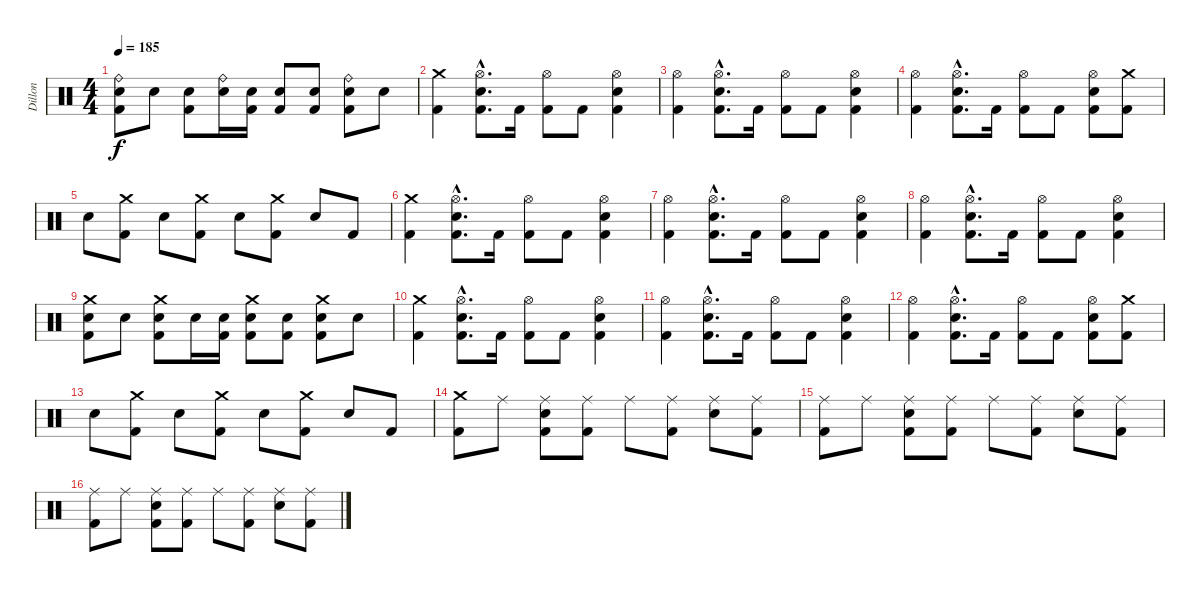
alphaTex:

\track ("Dillon" "Dillon") {instrument percussion}
\staff {score}
\articulation defaults
\ts (4 4)
\tempo 185
\clef neutral
\ks c
("Ride (bell)" "Electric Snare (hit)" "Kick (hit) 2").8{dy f} "Electric Snare (hit)".8 ("Electric Snare (hit)" "Kick (hit) 2").8 ("Ride (bell)" "Electric Snare (hit)").16 ("Electric Snare (hit)" "Kick (hit) 2").16 ("Electric Snare (hit)" "Kick (hit) 2").8 ("Electric Snare (hit)" "Kick (hit) 2").8 ("Ride (bell)" "Electric Snare (hit)" "Kick (hit) 2").8 "Electric Snare (hit)".8 |
("Crash medium (hit)" "Kick (hit) 2").4 ("Hi-Hat (open)"{hac} "Electric Snare (hit)"{hac} "Kick (hit) 2"{hac}).8{d} "Kick (hit) 2".16 ("Hi-Hat (open)" "Kick (hit) 2").8 "Kick (hit) 2".8 ("Hi-Hat (open)" "Electric Snare (hit)" "Kick (hit) 2").4 |
("Hi-Hat (open)" "Kick (hit) 2").4 ("Hi-Hat (open)"{hac} "Electric Snare (hit)"{hac} "Kick (hit) 2"{hac}).8{d} "Kick (hit) 2".16 ("Hi-Hat (open)" "Kick (hit) 2").8 "Kick (hit) 2".8 ("Hi-Hat (open)" "Electric Snare (hit)" "Kick (hit) 2").4 |
("Hi-Hat (open)" "Kick (hit) 2").4 ("Hi-Hat (open)"{hac} "Electric Snare (hit)"{hac} "Kick (hit) 2"{hac}).8{d} "Kick (hit) 2".16 ("Hi-Hat (open)" "Kick (hit) 2").8 "Kick (hit) 2".8 ("Hi-Hat (open)" "Electric Snare (hit)" "Kick (hit) 2").8 ("Crash medium (hit)" "Kick (hit) 2").8 |
"Electric Snare (hit)".8 ("Crash medium (hit)" "Kick (hit) 2").8 "Electric Snare (hit)".8 ("Crash medium (hit)" "Kick (hit) 2").8 "Electric Snare (hit)".8 ("Crash medium (hit)" "Kick (hit) 2").8 "Electric Snare (hit)".8 "Kick (hit) 2".8 |
("Crash medium (hit)" "Kick (hit) 2").4 ("Hi-Hat (open)"{hac} "Electric Snare (hit)"{hac} "Kick (hit) 2"{hac}).8{d} "Kick (hit) 2".16 ("Hi-Hat (open)" "Kick (hit) 2").8 "Kick (hit) 2".8 ("Hi-Hat (open)" "Electric Snare (hit)" "Kick (hit) 2").4 |
("Hi-Hat (open)" "Kick (hit) 2").4 ("Hi-Hat (open)"{hac} "Electric Snare (hit)"{hac} "Kick (hit) 2"{hac}).8{d} "Kick (hit) 2".16 ("Hi-Hat (open)" "Kick (hit) 2").8 "Kick (hit) 2".8 ("Hi-Hat (open)" "Electric Snare (hit)" "Kick (hit) 2").4 |
("Hi-Hat (open)" "Kick (hit) 2").4 ("Hi-Hat (open)"{hac} "Electric Snare (hit)"{hac} "Kick (hit) 2"{hac}).8{d} "Kick (hit) 2".16 ("Hi-Hat (open)" "Kick (hit) 2").8 "Kick (hit) 2".8 ("Hi-Hat (open)" "Electric Snare (hit)" "Kick (hit) 2").4 |
("Crash medium (hit)" "Electric Snare (hit)" "Kick (hit) 2").8 "Electric Snare (hit)".8 ("Crash medium (hit)" "Electric Snare (hit)" "Kick (hit) 2").8 "Electric Snare (hit)".16 ("Electric Snare (hit)" "Kick (hit) 2").16 ("Crash medium (hit)" "Electric Snare (hit)" "Kick (hit) 2").8 ("Electric Snare (hit)" "Kick (hit) 2").8 ("Crash medium (hit)" "Electric Snare (hit)" "Kick (hit) 2").8 "Electric Snare (hit)".8 |
("Crash medium (hit)" "Kick (hit) 2").4 ("Hi-Hat (open)"{hac} "Electric Snare (hit)"{hac} "Kick (hit) 2"{hac}).8{d} "Kick (hit) 2".16 ("Hi-Hat (open)" "Kick (hit) 2").8 "Kick (hit) 2".8 ("Hi-Hat (open)" "Electric Snare (hit)" "Kick (hit) 2").4 |
("Hi-Hat (open)" "Kick (hit) 2").4 ("Hi-Hat (open)"{hac} "Electric Snare (hit)"{hac} "Kick (hit) 2"{hac}).8{d} "Kick (hit) 2".16 ("Hi-Hat (open)" "Kick (hit) 2").8 "Kick (hit) 2".8 ("Hi-Hat (open)" "Electric Snare (hit)" "Kick (hit) 2").4 |
("Hi-Hat (open)" "Kick (hit) 2").4 ("Hi-Hat (open)"{hac} "Electric Snare (hit)"{hac} "Kick (hit) 2"{hac}).8{d} "Kick (hit) 2".16 ("Hi-Hat (open)" "Kick (hit) 2").8 "Kick (hit) 2".8 ("Hi-Hat (open)" "Electric Snare (hit)" "Kick (hit) 2").8 ("Crash medium (hit)" "Kick (hit) 2").8 |
"Electric Snare (hit)".8 ("Crash medium (hit)" "Kick (hit) 2").8 "Electric Snare (hit)".8 ("Crash medium (hit)" "Kick (hit) 2").8 "Electric Snare (hit)".8 ("Crash medium (hit)" "Kick (hit) 2").8 "Electric Snare (hit)".8 "Kick (hit) 2".8 |
("Crash medium (hit)" "Kick (hit) 2").8 "Ride (middle)".8 ("Ride (middle)" "Electric Snare (hit)" "Kick (hit) 2").8 ("Ride (middle)" "Kick (hit) 2").8 "Ride (middle)".8 ("Ride (middle)" "Kick (hit) 2").8 ("Ride (middle)" "Electric Snare (hit)").8 ("Ride (middle)" "Kick (hit) 2").8 |
("Ride (middle)" "Kick (hit) 2").8 "Ride (middle)".8 ("Ride (middle)" "Electric Snare (hit)" "Kick (hit) 2").8 ("Ride (middle)" "Kick (hit) 2").8 "Ride (middle)".8 ("Ride (middle)" "Kick (hit) 2").8 ("Ride (middle)" "Electric Snare (hit)").8 ("Ride (middle)" "Kick (hit) 2").8 |
("Ride (middle)" "Kick (hit) 2").8 "Ride (middle)".8 ("Ride (middle)" "Electric Snare (hit)" "Kick (hit) 2").8 ("Ride (middle)" "Kick (hit) 2").8 "Ride (middle)".8 ("Ride (middle)" "Kick (hit) 2").8 ("Ride (middle)" "Electric Snare (hit)").8 ("Ride (middle)" "Kick (hit) 2").8
